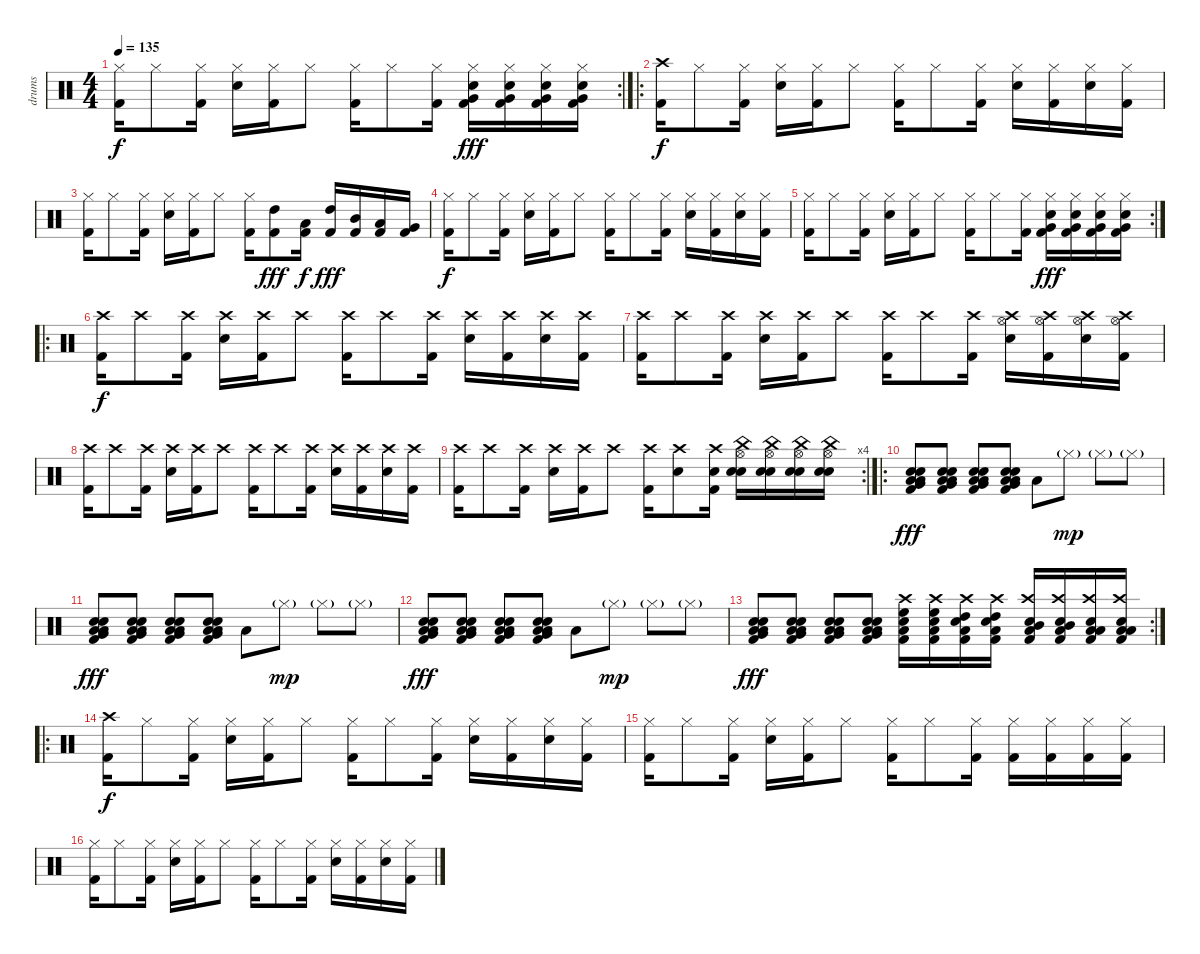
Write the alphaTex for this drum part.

\track ("drums" "drums") {instrument percussion}
\staff {score}
\articulation defaults
\rc 2
\ts (4 4)
\tempo 135
\clef neutral
\ks c
("Hi-Hat (closed)" "Kick (hit) 2").16{dy f} "Hi-Hat (closed)".8 ("Hi-Hat (closed)" "Kick (hit) 2").16 ("Hi-Hat (closed)" "Electric Snare (hit)").16 ("Hi-Hat (closed)" "Kick (hit) 2").16 "Hi-Hat (closed)".8 ("Hi-Hat (closed)" "Kick (hit) 2").16 "Hi-Hat (closed)".8 ("Hi-Hat (closed)" "Kick (hit) 2").16 ("Hi-Hat (closed)" "Kick (hit) 2" "Very Low Tom (hit)" "Electric Snare (hit)").16{dy fff} ("Hi-Hat (closed)" "Kick (hit) 2" "Very Low Tom (hit)" "Electric Snare (hit)").16 ("Hi-Hat (closed)" "Kick (hit) 2" "Very Low Tom (hit)" "Electric Snare (hit)").16 ("Hi-Hat (closed)" "Kick (hit) 2" "Very Low Tom (hit)" "Electric Snare (hit)").16 |
\ro
("Crash high (hit)" "Kick (hit) 2").16{dy f} "Hi-Hat (closed)".8 ("Hi-Hat (closed)" "Kick (hit) 2").16 ("Hi-Hat (closed)" "Electric Snare (hit)").16 ("Hi-Hat (closed)" "Kick (hit) 2").16 "Hi-Hat (closed)".8 ("Hi-Hat (closed)" "Kick (hit) 2").16 "Hi-Hat (closed)".8 ("Hi-Hat (closed)" "Kick (hit) 2").16 ("Hi-Hat (closed)" "Electric Snare (hit)").16 ("Hi-Hat (closed)" "Kick (hit) 2").16 ("Hi-Hat (closed)" "Electric Snare (hit)").16 ("Hi-Hat (closed)" "Kick (hit) 2").16 |
("Hi-Hat (closed)" "Kick (hit) 2").16 "Hi-Hat (closed)".8 ("Hi-Hat (closed)" "Kick (hit) 2").16 ("Hi-Hat (closed)" "Electric Snare (hit)").16 ("Hi-Hat (closed)" "Kick (hit) 2").16 "Hi-Hat (closed)".8 ("Hi-Hat (closed)" "Kick (hit) 2").16 ("High Tom (hit)" "Kick (hit) 2").8{dy fff} ("Low Tom (hit)" "Kick (hit) 2").16{dy f} ("High Tom (hit)" "Kick (hit) 2").16{dy fff} ("Mid Tom (hit)" "Kick (hit) 2").16 ("Low Tom (hit)" "Kick (hit) 2").16 ("Very Low Tom (hit)" "Kick (hit) 2").16 |
("Hi-Hat (closed)" "Kick (hit) 2").16{dy f} "Hi-Hat (closed)".8 ("Hi-Hat (closed)" "Kick (hit) 2").16 ("Hi-Hat (closed)" "Electric Snare (hit)").16 ("Hi-Hat (closed)" "Kick (hit) 2").16 "Hi-Hat (closed)".8 ("Hi-Hat (closed)" "Kick (hit) 2").16 "Hi-Hat (closed)".8 ("Hi-Hat (closed)" "Kick (hit) 2").16 ("Hi-Hat (closed)" "Electric Snare (hit)").16 ("Hi-Hat (closed)" "Kick (hit) 2").16 ("Hi-Hat (closed)" "Electric Snare (hit)").16 ("Hi-Hat (closed)" "Kick (hit) 2").16 |
\rc 2
("Hi-Hat (closed)" "Kick (hit) 2").16 "Hi-Hat (closed)".8 ("Hi-Hat (closed)" "Kick (hit) 2").16 ("Hi-Hat (closed)" "Electric Snare (hit)").16 ("Hi-Hat (closed)" "Kick (hit) 2").16 "Hi-Hat (closed)".8 ("Hi-Hat (closed)" "Kick (hit) 2").16 "Hi-Hat (closed)".8 ("Hi-Hat (closed)" "Kick (hit) 2").16 ("Hi-Hat (closed)" "Kick (hit) 2" "Very Low Tom (hit)" "Electric Snare (hit)").16{dy fff} ("Hi-Hat (closed)" "Kick (hit) 2" "Very Low Tom (hit)" "Electric Snare (hit)").16 ("Hi-Hat (closed)" "Kick (hit) 2" "Very Low Tom (hit)" "Electric Snare (hit)").16 ("Hi-Hat (closed)" "Kick (hit) 2" "Very Low Tom (hit)" "Electric Snare (hit)").16 |
\ro
("Crash high (hit)" "Kick (hit) 2").16{dy f} "Crash high (hit)".8 ("Crash high (hit)" "Kick (hit) 2").16 ("Crash high (hit)" "Electric Snare (hit)").16 ("Crash high (hit)" "Kick (hit) 2").16 "Crash high (hit)".8 ("Crash high (hit)" "Kick (hit) 2").16 "Crash high (hit)".8 ("Crash high (hit)" "Kick (hit) 2").16 ("Crash high (hit)" "Electric Snare (hit)").16 ("Crash high (hit)" "Kick (hit) 2").16 ("Crash high (hit)" "Electric Snare (hit)").16 ("Crash high (hit)" "Kick (hit) 2").16 |
("Crash high (hit)" "Kick (hit) 2").16 "Crash high (hit)".8 ("Crash high (hit)" "Kick (hit) 2").16 ("Crash high (hit)" "Electric Snare (hit)").16 ("Crash high (hit)" "Kick (hit) 2").16 "Crash high (hit)".8 ("Crash high (hit)" "Kick (hit) 2").16 "Crash high (hit)".8 ("Crash high (hit)" "Kick (hit) 2").16 ("Crash high (hit)" "Hi-Hat (open)" "Electric Snare (hit)").16 ("Crash high (hit)" "Hi-Hat (open)" "Kick (hit) 2").16 ("Crash high (hit)" "Hi-Hat (open)" "Electric Snare (hit)").16 ("Crash high (hit)" "Hi-Hat (open)" "Kick (hit) 2").16 |
("Crash high (hit)" "Kick (hit) 2").16 "Crash high (hit)".8 ("Crash high (hit)" "Kick (hit) 2").16 ("Crash high (hit)" "Electric Snare (hit)").16 ("Crash high (hit)" "Kick (hit) 2").16 "Crash high (hit)".8 ("Crash high (hit)" "Kick (hit) 2").16 "Crash high (hit)".8 ("Crash high (hit)" "Kick (hit) 2").16 ("Crash high (hit)" "Electric Snare (hit)").16 ("Crash high (hit)" "Kick (hit) 2").16 ("Crash high (hit)" "Electric Snare (hit)").16 ("Crash high (hit)" "Kick (hit) 2").16 |
\rc 4
("Crash high (hit)" "Kick (hit) 2").16 "Crash high (hit)".8 ("Crash high (hit)" "Kick (hit) 2").16 ("Crash high (hit)" "Electric Snare (hit)").16 ("Crash high (hit)" "Kick (hit) 2").16 "Crash high (hit)".8 ("Crash high (hit)" "Kick (hit) 2").16 ("Crash high (hit)" "Electric Snare (hit)").8 ("Crash high (hit)" "Electric Snare (hit)" "Kick (hit) 2").16 ("China (hit)" "Hi-Hat (open)" "Electric Snare (hit)" "Electric Snare (hit)").16 ("China (hit)" "Hi-Hat (open)" "Electric Snare (hit)" "Electric Snare (hit)").16 ("China (hit)" "Hi-Hat (open)" "Electric Snare (hit)" "Electric Snare (hit)").16 ("China (hit)" "Hi-Hat (open)" "Electric Snare (hit)" "Electric Snare (hit)").16 |
\ro
("Electric Snare (hit)" "Low Floor Tom (hit)" "Low Tom (hit)" "Very Low Tom (hit)" "Kick (hit) 2" "Electric Snare (hit)").8{dy fff} ("Electric Snare (hit)" "Low Floor Tom (hit)" "Low Tom (hit)" "Very Low Tom (hit)" "Kick (hit) 2" "Electric Snare (hit)").8 ("Electric Snare (hit)" "Low Floor Tom (hit)" "Low Tom (hit)" "Very Low Tom (hit)" "Kick (hit) 2" "Electric Snare (hit)").8 ("Electric Snare (hit)" "Low Floor Tom (hit)" "Low Tom (hit)" "Very Low Tom (hit)" "Kick (hit) 2" "Electric Snare (hit)").8 "Low Floor Tom (hit)".8 "Hi-Hat (closed)"{g}.8{dy mp} "Hi-Hat (closed)"{g}.8 "Hi-Hat (closed)"{g}.8 |
("Electric Snare (hit)" "Low Floor Tom (hit)" "Low Tom (hit)" "Very Low Tom (hit)" "Kick (hit) 2" "Electric Snare (hit)").8{dy fff} ("Electric Snare (hit)" "Low Floor Tom (hit)" "Low Tom (hit)" "Very Low Tom (hit)" "Kick (hit) 2" "Electric Snare (hit)").8 ("Electric Snare (hit)" "Low Floor Tom (hit)" "Low Tom (hit)" "Very Low Tom (hit)" "Kick (hit) 2" "Electric Snare (hit)").8 ("Electric Snare (hit)" "Low Floor Tom (hit)" "Low Tom (hit)" "Very Low Tom (hit)" "Kick (hit) 2" "Electric Snare (hit)").8 "Low Floor Tom (hit)".8 "Hi-Hat (closed)"{g}.8{dy mp} "Hi-Hat (closed)"{g}.8 "Hi-Hat (closed)"{g}.8 |
("Electric Snare (hit)" "Low Floor Tom (hit)" "Low Tom (hit)" "Very Low Tom (hit)" "Kick (hit) 2" "Electric Snare (hit)").8{dy fff} ("Electric Snare (hit)" "Low Floor Tom (hit)" "Low Tom (hit)" "Very Low Tom (hit)" "Kick (hit) 2" "Electric Snare (hit)").8 ("Electric Snare (hit)" "Low Floor Tom (hit)" "Low Tom (hit)" "Very Low Tom (hit)" "Kick (hit) 2" "Electric Snare (hit)").8 ("Electric Snare (hit)" "Low Floor Tom (hit)" "Low Tom (hit)" "Very Low Tom (hit)" "Kick (hit) 2" "Electric Snare (hit)").8 "Low Floor Tom (hit)".8 "Hi-Hat (closed)"{g}.8{dy mp} "Hi-Hat (closed)"{g}.8 "Hi-Hat (closed)"{g}.8 |
\rc 2
("Electric Snare (hit)" "Low Floor Tom (hit)" "Low Tom (hit)" "Very Low Tom (hit)" "Kick (hit) 2" "Electric Snare (hit)").8{dy fff} ("Electric Snare (hit)" "Low Floor Tom (hit)" "Low Tom (hit)" "Very Low Tom (hit)" "Kick (hit) 2" "Electric Snare (hit)").8 ("Electric Snare (hit)" "Low Floor Tom (hit)" "Low Tom (hit)" "Very Low Tom (hit)" "Kick (hit) 2" "Electric Snare (hit)").8 ("Electric Snare (hit)" "Low Floor Tom (hit)" "Low Tom (hit)" "Very Low Tom (hit)" "Kick (hit) 2" "Electric Snare (hit)").8 ("High Floor Tom (hit)" "Crash high (hit)" "Kick (hit) 2" "Electric Snare (hit)" "Low Floor Tom (hit)").16 ("High Floor Tom (hit)" "Crash high (hit)" "Kick (hit) 2" "Electric Snare (hit)" "Low Floor Tom (hit)").16 ("High Tom (hit)" "Crash high (hit)" "Kick (hit) 2" "Electric Snare (hit)" "Low Floor Tom (hit)").16 ("High Tom (hit)" "Crash high (hit)" "Kick (hit) 2" "Electric Snare (hit)" "Low Floor Tom (hit)").16 ("Mid Tom (hit)" "Crash high (hit)" "Kick (hit) 2" "Electric Snare (hit)" "Low Floor Tom (hit)").16 ("Mid Tom (hit)" "Crash high (hit)" "Kick (hit) 2" "Electric Snare (hit)" "Low Floor Tom (hit)").16 ("Low Tom (hit)" "Crash high (hit)" "Kick (hit) 2" "Electric Snare (hit)" "Low Floor Tom (hit)").16 ("Low Tom (hit)" "Crash high (hit)" "Kick (hit) 2" "Electric Snare (hit)" "Low Floor Tom (hit)").16 |
\ro
("Crash high (hit)" "Kick (hit) 2").16{dy f} "Hi-Hat (closed)".8 ("Hi-Hat (closed)" "Kick (hit) 2").16 ("Hi-Hat (closed)" "Electric Snare (hit)").16 ("Hi-Hat (closed)" "Kick (hit) 2").16 "Hi-Hat (closed)".8 ("Hi-Hat (closed)" "Kick (hit) 2").16 "Hi-Hat (closed)".8 ("Hi-Hat (closed)" "Kick (hit) 2").16 ("Hi-Hat (closed)" "Electric Snare (hit)").16 ("Hi-Hat (closed)" "Kick (hit) 2").16 ("Hi-Hat (closed)" "Electric Snare (hit)").16 ("Hi-Hat (closed)" "Kick (hit) 2").16 |
("Hi-Hat (closed)" "Kick (hit) 2").16 "Hi-Hat (closed)".8 ("Hi-Hat (closed)" "Kick (hit) 2").16 ("Hi-Hat (closed)" "Electric Snare (hit)").16 ("Hi-Hat (closed)" "Kick (hit) 2").16 "Hi-Hat (closed)".8 ("Hi-Hat (closed)" "Kick (hit) 2").16 "Hi-Hat (closed)".8 ("Hi-Hat (closed)" "Kick (hit) 2").16 ("Hi-Hat (closed)" "Kick (hit) 2").16 ("Hi-Hat (closed)" "Kick (hit) 2").16 ("Hi-Hat (closed)" "Kick (hit) 2").16 ("Hi-Hat (closed)" "Kick (hit) 2").16 |
("Hi-Hat (closed)" "Kick (hit) 2").16 "Hi-Hat (closed)".8 ("Hi-Hat (closed)" "Kick (hit) 2").16 ("Hi-Hat (closed)" "Electric Snare (hit)").16 ("Hi-Hat (closed)" "Kick (hit) 2").16 "Hi-Hat (closed)".8 ("Hi-Hat (closed)" "Kick (hit) 2").16 "Hi-Hat (closed)".8 ("Hi-Hat (closed)" "Kick (hit) 2").16 ("Hi-Hat (closed)" "Electric Snare (hit)").16 ("Hi-Hat (closed)" "Kick (hit) 2").16 ("Hi-Hat (closed)" "Electric Snare (hit)").16 ("Hi-Hat (closed)" "Kick (hit) 2").16
